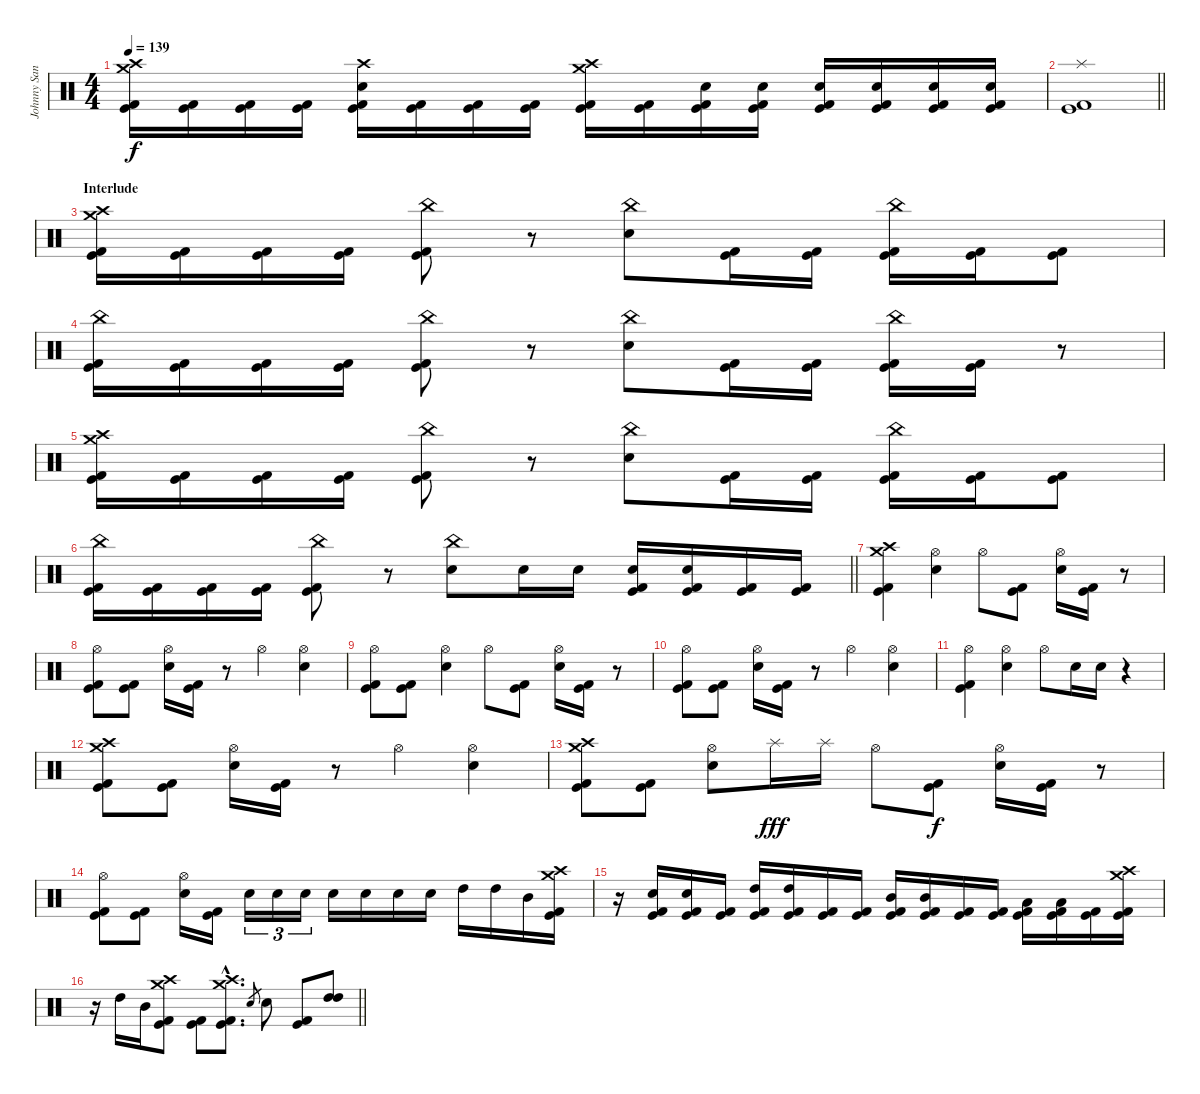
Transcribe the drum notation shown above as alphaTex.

\track ("Johnny Sandin" "Johnny San") {instrument percussion}
\staff {score}
\articulation defaults
\ts (4 4)
\tempo 139
\clef neutral
\ks c
("Crash medium (hit)" "Crash high (hit)" "Kick (hit) 2" "Kick (hit)").16{dy f} ("Kick (hit) 2" "Kick (hit)").16 ("Kick (hit) 2" "Kick (hit)").16 ("Kick (hit) 2" "Kick (hit)").16 ("Crash high (hit)" "Snare (hit) 2" "Kick (hit) 2" "Kick (hit)").16 ("Kick (hit) 2" "Kick (hit)").16 ("Kick (hit) 2" "Kick (hit)").16 ("Kick (hit) 2" "Kick (hit)").16 ("Crash medium (hit)" "Crash high (hit)" "Kick (hit) 2" "Kick (hit)").16 ("Kick (hit) 2" "Kick (hit)").16 ("Snare (hit) 2" "Kick (hit) 2" "Kick (hit)").16 ("Snare (hit) 2" "Kick (hit) 2" "Kick (hit)").16 ("Snare (hit) 2" "Kick (hit) 2" "Kick (hit)").16 ("Snare (hit) 2" "Kick (hit) 2" "Kick (hit)").16 ("Snare (hit) 2" "Kick (hit) 2" "Kick (hit)").16 ("Snare (hit) 2" "Kick (hit) 2" "Kick (hit)").16 |
\barLineRight lightlight
("Splash (hit)" "Kick (hit) 2" "Kick (hit)").1 |
\section ("" "Interlude")
("Crash medium (hit)" "Crash high (hit)" "Kick (hit) 2" "Kick (hit)").16 ("Kick (hit) 2" "Kick (hit)").16 ("Kick (hit) 2" "Kick (hit)").16 ("Kick (hit) 2" "Kick (hit)").16 ("China (hit)" "Kick (hit) 2" "Kick (hit)").8 r.8 ("China (hit)" "Snare (hit) 2").8 ("Kick (hit) 2" "Kick (hit)").16 ("Kick (hit) 2" "Kick (hit)").16 ("China (hit)" "Kick (hit) 2" "Kick (hit)").16 ("Kick (hit) 2" "Kick (hit)").16 ("Kick (hit) 2" "Kick (hit)").8 |
("China (hit)" "Kick (hit) 2" "Kick (hit)").16 ("Kick (hit) 2" "Kick (hit)").16 ("Kick (hit) 2" "Kick (hit)").16 ("Kick (hit) 2" "Kick (hit)").16 ("China (hit)" "Kick (hit) 2" "Kick (hit)").8 r.8 ("China (hit)" "Snare (hit) 2").8 ("Kick (hit) 2" "Kick (hit)").16 ("Kick (hit) 2" "Kick (hit)").16 ("China (hit)" "Kick (hit) 2" "Kick (hit)").16 ("Kick (hit) 2" "Kick (hit)").16 r.8 |
("Crash medium (hit)" "Crash high (hit)" "Kick (hit) 2" "Kick (hit)").16 ("Kick (hit) 2" "Kick (hit)").16 ("Kick (hit) 2" "Kick (hit)").16 ("Kick (hit) 2" "Kick (hit)").16 ("China (hit)" "Kick (hit) 2" "Kick (hit)").8 r.8 ("China (hit)" "Snare (hit) 2").8 ("Kick (hit) 2" "Kick (hit)").16 ("Kick (hit) 2" "Kick (hit)").16 ("China (hit)" "Kick (hit) 2" "Kick (hit)").16 ("Kick (hit) 2" "Kick (hit)").16 ("Kick (hit) 2" "Kick (hit)").8 |
\barLineRight lightlight
("China (hit)" "Kick (hit) 2" "Kick (hit)").16 ("Kick (hit) 2" "Kick (hit)").16 ("Kick (hit) 2" "Kick (hit)").16 ("Kick (hit) 2" "Kick (hit)").16 ("China (hit)" "Kick (hit) 2" "Kick (hit)").8 r.8 ("China (hit)" "Snare (hit) 2").8 "Snare (hit) 2".16 "Snare (hit) 2".16 ("Snare (hit) 2" "Kick (hit) 2" "Kick (hit)").16 ("Snare (hit) 2" "Kick (hit) 2" "Kick (hit)").16 ("Kick (hit) 2" "Kick (hit)").16 ("Kick (hit) 2" "Kick (hit)").16 |
("Crash medium (hit)" "Crash high (hit)" "Kick (hit) 2" "Kick (hit)").4 ("Hi-Hat (open)" "Snare (hit) 2").4 "Hi-Hat (open)".8 ("Kick (hit) 2" "Kick (hit)").8 ("Hi-Hat (open)" "Snare (hit) 2").16 ("Kick (hit) 2" "Kick (hit)").16 r.8 |
("Hi-Hat (open)" "Kick (hit) 2" "Kick (hit)").8 ("Kick (hit) 2" "Kick (hit)").8 ("Hi-Hat (open)" "Snare (hit) 2").16 ("Kick (hit) 2" "Kick (hit)").16 r.8 "Hi-Hat (open)".4 ("Hi-Hat (open)" "Snare (hit) 2").4 |
("Hi-Hat (open)" "Kick (hit) 2" "Kick (hit)").8 ("Kick (hit)" "Kick (hit) 2").8 ("Hi-Hat (open)" "Snare (hit) 2").4 "Hi-Hat (open)".8 ("Kick (hit) 2" "Kick (hit)").8 ("Hi-Hat (open)" "Snare (hit) 2").16 ("Kick (hit) 2" "Kick (hit)").16 r.8 |
("Hi-Hat (open)" "Kick (hit) 2" "Kick (hit)").8 ("Kick (hit) 2" "Kick (hit)").8 ("Hi-Hat (open)" "Snare (hit) 2").16 ("Kick (hit) 2" "Kick (hit)").16 r.8 "Hi-Hat (open)".4 ("Hi-Hat (open)" "Snare (hit) 2").4 |
("Hi-Hat (open)" "Kick (hit) 2" "Kick (hit)").4 ("Hi-Hat (open)" "Snare (hit) 2").4 "Hi-Hat (open)".8 "Snare (hit) 2".16 "Snare (hit) 2".16 r.4 |
("Crash medium (hit)" "Crash high (hit)" "Kick (hit) 2" "Kick (hit)").8 ("Kick (hit) 2" "Kick (hit)").8 ("Hi-Hat (open)" "Snare (hit) 2").16 ("Kick (hit) 2" "Kick (hit)").16 r.8 "Hi-Hat (open)".4 ("Hi-Hat (open)" "Snare (hit) 2").4 |
("Crash medium (hit)" "Crash high (hit)" "Kick (hit) 2" "Kick (hit)").8 ("Kick (hit)" "Kick (hit) 2").8 ("Hi-Hat (open)" "Snare (hit) 2").8 "Splash (hit)".16{dy fff} "Splash (hit)".16 "Hi-Hat (open)".8 ("Kick (hit) 2" "Kick (hit)").8{dy f} ("Hi-Hat (open)" "Snare (hit) 2").16 ("Kick (hit) 2" "Kick (hit)").16 r.8 |
("Hi-Hat (open)" "Kick (hit) 2" "Kick (hit)").8 ("Kick (hit) 2" "Kick (hit)").8 ("Hi-Hat (open)" "Snare (hit) 2").16 ("Kick (hit) 2" "Kick (hit)").16 "Snare (hit) 2".16{tu (3 2)} "Snare (hit) 2".16{tu (3 2)} "Snare (hit) 2".16{tu (3 2)} "Snare (hit) 2".16 "Snare (hit) 2".16 "Snare (hit) 2".16 "Snare (hit) 2".16 "High Tom (hit)".16 "High Tom (hit)".16 "Mid Tom (hit)".16 ("Crash medium (hit)" "Crash high (hit)" "Kick (hit) 2" "Kick (hit)").16 |
r.16 ("Snare (hit) 2" "Kick (hit) 2" "Kick (hit)").16 ("Snare (hit) 2" "Kick (hit) 2" "Kick (hit)").16 ("Kick (hit) 2" "Kick (hit)").16 ("High Tom (hit)" "Kick (hit) 2" "Kick (hit)").16 ("High Tom (hit)" "Kick (hit) 2" "Kick (hit)").16 ("Kick (hit) 2" "Kick (hit)").16 ("Kick (hit) 2" "Kick (hit)").16 ("Mid Tom (hit)" "Kick (hit) 2" "Kick (hit)").16 ("Mid Tom (hit)" "Kick (hit) 2" "Kick (hit)").16 ("Kick (hit) 2" "Kick (hit)").16 ("Kick (hit) 2" "Kick (hit)").16 ("Low Tom (hit)" "Kick (hit) 2" "Kick (hit)").16 ("Low Tom (hit)" "Kick (hit) 2" "Kick (hit)").16 ("Kick (hit) 2" "Kick (hit)").16 ("Crash medium (hit)" "Crash high (hit)" "Kick (hit) 2" "Kick (hit)").16 |
\barLineRight lightlight
r.16 "High Tom (hit)".16 "Mid Tom (hit)".16 ("Crash medium (hit)" "Crash high (hit)" "Kick (hit) 2" "Kick (hit)").8 ("Kick (hit) 2" "Kick (hit)").8 ("Crash medium (hit)"{hac} "Crash high (hit)"{hac} "Kick (hit) 2"{hac} "Kick (hit)"{hac}).8{d} "Snare (hit) 2".8{gr} "Snare (hit) 2".8 ("Kick (hit)" "Kick (hit) 2").8 ("High Tom (hit)" "High Tom (hit)").8
